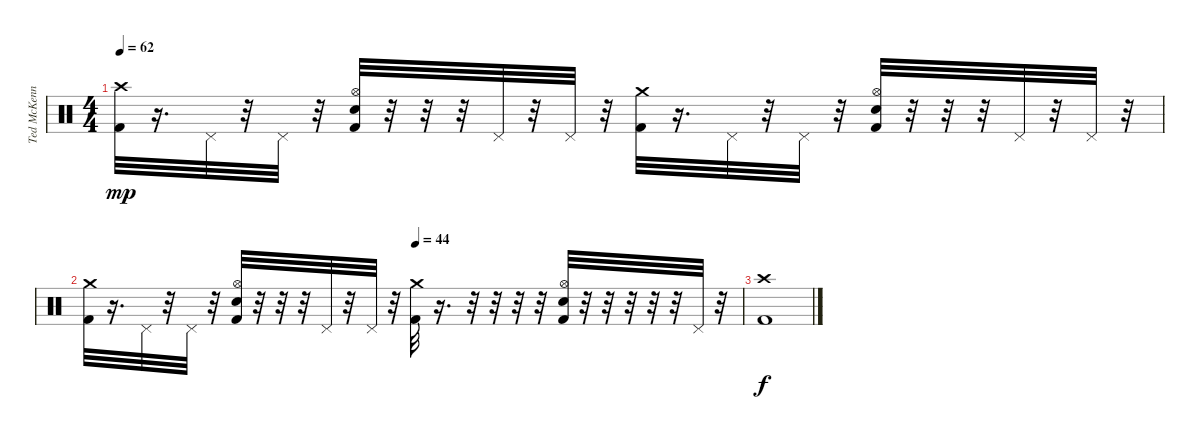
\track ("Ted McKenna" "Ted McKenn") {instrument percussion}
\staff {score}
\articulation defaults
\ts (4 4)
\tempo 62
\clef neutral
\ks c
("Crash high (hit)" "Kick (hit) 2").32{dy mp} r.16{d} "Pedal Hi-Hat (hit)".32 r.32 "Pedal Hi-Hat (hit)".32 r.32 ("Hi-Hat (open)" "Electric Snare (hit)" "Kick (hit) 2").32 r.32 r.32 r.32 "Pedal Hi-Hat (hit)".32 r.32 "Pedal Hi-Hat (hit)".32 r.32 ("Crash medium (hit)" "Kick (hit) 2").32 r.16{d} "Pedal Hi-Hat (hit)".32 r.32 "Pedal Hi-Hat (hit)".32 r.32 ("Hi-Hat (open)" "Electric Snare (hit)" "Kick (hit) 2").32 r.32 r.32 r.32 "Pedal Hi-Hat (hit)".32 r.32 "Pedal Hi-Hat (hit)".32 r.32 |
\tempo (44 0.5)
("Crash medium (hit)" "Kick (hit) 2").32 r.16{d} "Pedal Hi-Hat (hit)".32 r.32 "Pedal Hi-Hat (hit)".32 r.32 ("Hi-Hat (open)" "Electric Snare (hit)" "Kick (hit) 2").32 r.32 r.32 r.32 "Pedal Hi-Hat (hit)".32 r.32 "Pedal Hi-Hat (hit)".32 r.32 ("Crash medium (hit)" "Kick (hit) 2").32 r.16{d} r.32 r.32 r.32 r.32 ("Hi-Hat (open)" "Electric Snare (hit)" "Kick (hit) 2").32 r.32 r.32 r.32 r.32 r.32 "Pedal Hi-Hat (hit)".32 r.32 |
("Crash high (hit)" "Kick (hit) 2").1{dy f}
